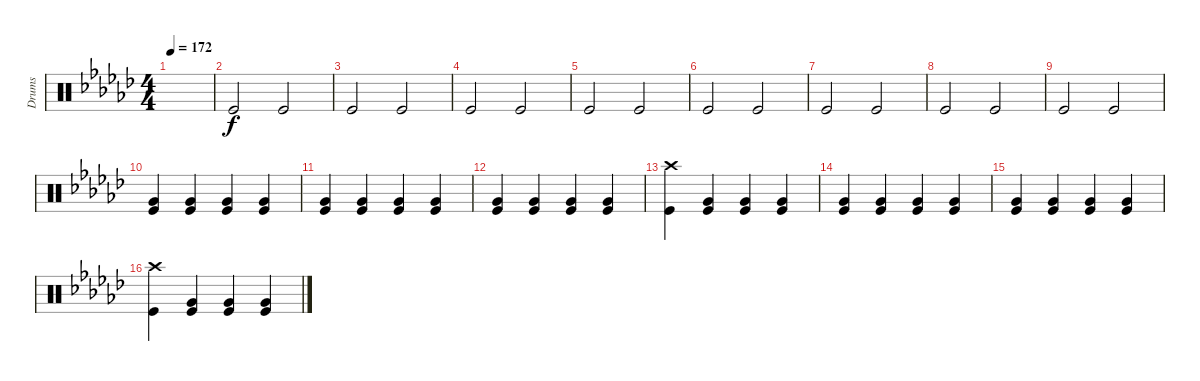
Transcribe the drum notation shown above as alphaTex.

\track ("Drums" "Drums") {instrument percussion}
\staff {score}
\articulation defaults
\ts (4 4)
\tempo 172
\clef neutral
\ks ebminor
|
"Kick (hit)".2 "Kick (hit)".2 |
"Kick (hit)".2 "Kick (hit)".2 |
"Kick (hit)".2 "Kick (hit)".2 |
"Kick (hit)".2 "Kick (hit)".2 |
"Kick (hit)".2 "Kick (hit)".2 |
"Kick (hit)".2 "Kick (hit)".2 |
"Kick (hit)".2 "Kick (hit)".2 |
"Kick (hit)".2 "Kick (hit)".2 |
("Very Low Tom (hit)" "Kick (hit)").4 ("Very Low Tom (hit)" "Kick (hit)").4 ("Very Low Tom (hit)" "Kick (hit)").4 ("Very Low Tom (hit)" "Kick (hit)").4 |
("Very Low Tom (hit)" "Kick (hit)").4 ("Very Low Tom (hit)" "Kick (hit)").4 ("Very Low Tom (hit)" "Kick (hit)").4 ("Very Low Tom (hit)" "Kick (hit)").4 |
("Very Low Tom (hit)" "Kick (hit)").4 ("Very Low Tom (hit)" "Kick (hit)").4 ("Very Low Tom (hit)" "Kick (hit)").4 ("Very Low Tom (hit)" "Kick (hit)").4 |
("Crash high (hit)" "Kick (hit)").4 ("Very Low Tom (hit)" "Kick (hit)").4 ("Very Low Tom (hit)" "Kick (hit)").4 ("Very Low Tom (hit)" "Kick (hit)").4 |
("Very Low Tom (hit)" "Kick (hit)").4 ("Very Low Tom (hit)" "Kick (hit)").4 ("Very Low Tom (hit)" "Kick (hit)").4 ("Very Low Tom (hit)" "Kick (hit)").4 |
("Very Low Tom (hit)" "Kick (hit)").4 ("Very Low Tom (hit)" "Kick (hit)").4 ("Very Low Tom (hit)" "Kick (hit)").4 ("Very Low Tom (hit)" "Kick (hit)").4 |
("Crash high (hit)" "Kick (hit)").4 ("Very Low Tom (hit)" "Kick (hit)").4 ("Very Low Tom (hit)" "Kick (hit)").4 ("Very Low Tom (hit)" "Kick (hit)").4
